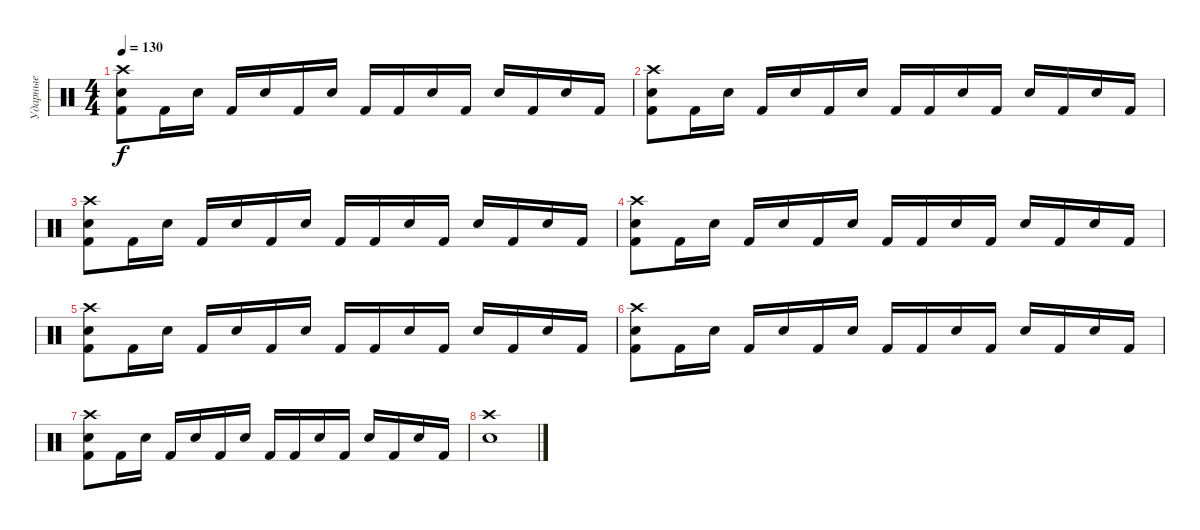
\track ("Ударные" "Ударные") {instrument percussion}
\staff {score}
\articulation defaults
\ts (4 4)
\tempo 130
\clef neutral
\ks c
("Crash high (hit)" "Kick (hit) 2" "Snare (hit) 2").8{dy f} "Kick (hit) 2".16 "Snare (hit) 2".16 "Kick (hit) 2".16 "Snare (hit) 2".16 "Kick (hit) 2".16 "Snare (hit) 2".16 "Kick (hit) 2".16 "Kick (hit) 2".16 "Snare (hit) 2".16 "Kick (hit) 2".16 "Snare (hit) 2".16 "Kick (hit) 2".16 "Snare (hit) 2".16 "Kick (hit) 2".16 |
("Crash high (hit)" "Kick (hit) 2" "Snare (hit) 2").8 "Kick (hit) 2".16 "Snare (hit) 2".16 "Kick (hit) 2".16 "Snare (hit) 2".16 "Kick (hit) 2".16 "Snare (hit) 2".16 "Kick (hit) 2".16 "Kick (hit) 2".16 "Snare (hit) 2".16 "Kick (hit) 2".16 "Snare (hit) 2".16 "Kick (hit) 2".16 "Snare (hit) 2".16 "Kick (hit) 2".16 |
("Crash high (hit)" "Kick (hit) 2" "Snare (hit) 2").8 "Kick (hit) 2".16 "Snare (hit) 2".16 "Kick (hit) 2".16 "Snare (hit) 2".16 "Kick (hit) 2".16 "Snare (hit) 2".16 "Kick (hit) 2".16 "Kick (hit) 2".16 "Snare (hit) 2".16 "Kick (hit) 2".16 "Snare (hit) 2".16 "Kick (hit) 2".16 "Snare (hit) 2".16 "Kick (hit) 2".16 |
("Crash high (hit)" "Kick (hit) 2" "Snare (hit) 2").8 "Kick (hit) 2".16 "Snare (hit) 2".16 "Kick (hit) 2".16 "Snare (hit) 2".16 "Kick (hit) 2".16 "Snare (hit) 2".16 "Kick (hit) 2".16 "Kick (hit) 2".16 "Snare (hit) 2".16 "Kick (hit) 2".16 "Snare (hit) 2".16 "Kick (hit) 2".16 "Snare (hit) 2".16 "Kick (hit) 2".16 |
("Crash high (hit)" "Kick (hit) 2" "Snare (hit) 2").8 "Kick (hit) 2".16 "Snare (hit) 2".16 "Kick (hit) 2".16 "Snare (hit) 2".16 "Kick (hit) 2".16 "Snare (hit) 2".16 "Kick (hit) 2".16 "Kick (hit) 2".16 "Snare (hit) 2".16 "Kick (hit) 2".16 "Snare (hit) 2".16 "Kick (hit) 2".16 "Snare (hit) 2".16 "Kick (hit) 2".16 |
("Crash high (hit)" "Kick (hit) 2" "Snare (hit) 2").8 "Kick (hit) 2".16 "Snare (hit) 2".16 "Kick (hit) 2".16 "Snare (hit) 2".16 "Kick (hit) 2".16 "Snare (hit) 2".16 "Kick (hit) 2".16 "Kick (hit) 2".16 "Snare (hit) 2".16 "Kick (hit) 2".16 "Snare (hit) 2".16 "Kick (hit) 2".16 "Snare (hit) 2".16 "Kick (hit) 2".16 |
("Crash high (hit)" "Kick (hit) 2" "Snare (hit) 2").8 "Kick (hit) 2".16 "Snare (hit) 2".16 "Kick (hit) 2".16 "Snare (hit) 2".16 "Kick (hit) 2".16 "Snare (hit) 2".16 "Kick (hit) 2".16 "Kick (hit) 2".16 "Snare (hit) 2".16 "Kick (hit) 2".16 "Snare (hit) 2".16 "Kick (hit) 2".16 "Snare (hit) 2".16 "Kick (hit) 2".16 |
("Crash high (hit)" "Snare (hit) 2").1
